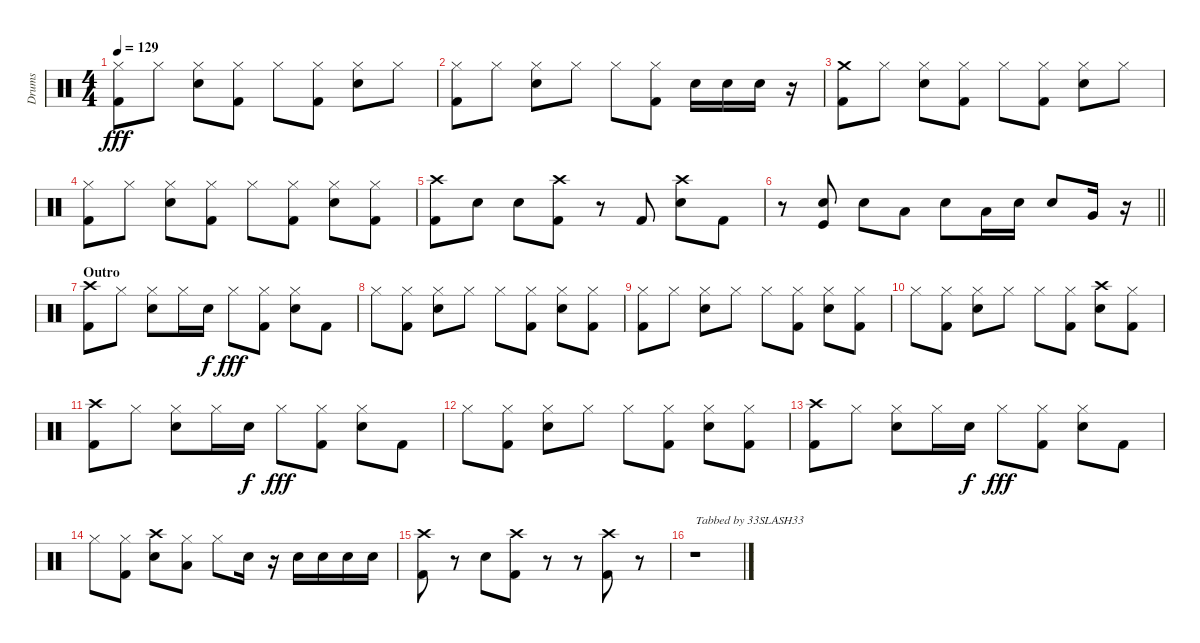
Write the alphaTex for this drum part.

\track ("Drums" "Drums") {instrument percussion}
\staff {score}
\articulation defaults
\ts (4 4)
\tempo 129
\clef neutral
\ks c
("Hi-Hat (closed)" "Kick (hit) 2").8{dy fff} "Hi-Hat (closed)".8 ("Hi-Hat (closed)" "Snare (hit) 2").8 ("Hi-Hat (closed)" "Kick (hit) 2").8 "Hi-Hat (closed)".8 ("Hi-Hat (closed)" "Kick (hit) 2").8 ("Hi-Hat (closed)" "Snare (hit) 2").8 "Hi-Hat (closed)".8 |
("Hi-Hat (closed)" "Kick (hit) 2").8 "Hi-Hat (closed)".8 ("Hi-Hat (closed)" "Snare (hit) 2").8 "Hi-Hat (closed)".8 "Hi-Hat (closed)".8 ("Hi-Hat (closed)" "Kick (hit) 2").8 "Snare (hit) 2".16 "Snare (hit) 2".16 "Snare (hit) 2".16 r.16 |
("Crash medium (hit)" "Kick (hit) 2").8 "Hi-Hat (closed)".8 ("Hi-Hat (closed)" "Snare (hit) 2").8 ("Hi-Hat (closed)" "Kick (hit) 2").8 "Hi-Hat (closed)".8 ("Hi-Hat (closed)" "Kick (hit) 2").8 ("Hi-Hat (closed)" "Snare (hit) 2").8 "Hi-Hat (closed)".8 |
("Hi-Hat (closed)" "Kick (hit) 2").8 "Hi-Hat (closed)".8 ("Hi-Hat (closed)" "Snare (hit) 2").8 ("Hi-Hat (closed)" "Kick (hit) 2").8 "Hi-Hat (closed)".8 ("Hi-Hat (closed)" "Kick (hit) 2").8 ("Hi-Hat (closed)" "Snare (hit) 2").8 ("Hi-Hat (closed)" "Kick (hit) 2").8 |
("Crash high (hit)" "Kick (hit) 2").8 "Snare (hit) 2".8 "Snare (hit) 2".8 ("Crash high (hit)" "Kick (hit) 2").8 r.8 "Kick (hit) 2".8 ("Crash high (hit)" "Snare (hit) 2").8 "Kick (hit) 2".8 |
\barLineRight lightlight
r.8 ("Snare (hit) 2" "Kick (hit)").8 "Snare (hit) 2".8 "Low Floor Tom (hit)".8 "Snare (hit) 2".8 "Low Tom (hit)".16 "Snare (hit) 2".16 "Snare (hit) 2".8 "Very Low Tom (hit)".16 r.16 |
\section ("" "Outro")
("Crash high (hit)" "Kick (hit) 2").8 "Hi-Hat (closed)".8 ("Hi-Hat (closed)" "Snare (hit) 2").8 "Hi-Hat (closed)".16 "Snare (hit) 2".16{dy f} "Hi-Hat (closed)".8{dy fff} ("Hi-Hat (closed)" "Kick (hit) 2").8 ("Hi-Hat (closed)" "Snare (hit) 2").8 "Kick (hit) 2".8 |
"Hi-Hat (closed)".8 ("Hi-Hat (closed)" "Kick (hit) 2").8 ("Hi-Hat (closed)" "Snare (hit) 2").8 "Hi-Hat (closed)".8 "Hi-Hat (closed)".8 ("Hi-Hat (closed)" "Kick (hit) 2").8 ("Hi-Hat (closed)" "Snare (hit) 2").8 ("Hi-Hat (closed)" "Kick (hit) 2").8 |
("Hi-Hat (closed)" "Kick (hit) 2").8 "Hi-Hat (closed)".8 ("Hi-Hat (closed)" "Snare (hit) 2").8 "Hi-Hat (closed)".8 "Hi-Hat (closed)".8 ("Hi-Hat (closed)" "Kick (hit) 2").8 ("Hi-Hat (closed)" "Snare (hit) 2").8 ("Hi-Hat (closed)" "Kick (hit) 2").8 |
"Hi-Hat (closed)".8 ("Hi-Hat (closed)" "Kick (hit) 2").8 ("Hi-Hat (closed)" "Snare (hit) 2").8 "Hi-Hat (closed)".8 "Hi-Hat (closed)".8 ("Hi-Hat (closed)" "Kick (hit) 2").8 ("Crash high (hit)" "Snare (hit) 2").8 ("Hi-Hat (closed)" "Kick (hit) 2").8 |
("Crash high (hit)" "Kick (hit) 2").8 "Hi-Hat (closed)".8 ("Hi-Hat (closed)" "Snare (hit) 2").8 "Hi-Hat (closed)".16 "Snare (hit) 2".16{dy f} "Hi-Hat (closed)".8{dy fff} ("Hi-Hat (closed)" "Kick (hit) 2").8 ("Hi-Hat (closed)" "Snare (hit) 2").8 "Kick (hit) 2".8 |
"Hi-Hat (closed)".8 ("Hi-Hat (closed)" "Kick (hit) 2").8 ("Hi-Hat (closed)" "Snare (hit) 2").8 "Hi-Hat (closed)".8 "Hi-Hat (closed)".8 ("Hi-Hat (closed)" "Kick (hit) 2").8 ("Hi-Hat (closed)" "Snare (hit) 2").8 ("Hi-Hat (closed)" "Kick (hit) 2").8 |
("Crash high (hit)" "Kick (hit) 2").8 "Hi-Hat (closed)".8 ("Hi-Hat (closed)" "Snare (hit) 2").8 "Hi-Hat (closed)".16 "Snare (hit) 2".16{dy f} "Hi-Hat (closed)".8{dy fff} ("Hi-Hat (closed)" "Kick (hit) 2").8 ("Hi-Hat (closed)" "Snare (hit) 2").8 "Kick (hit) 2".8 |
"Hi-Hat (closed)".8 ("Hi-Hat (closed)" "Kick (hit) 2").8 ("Crash high (hit)" "Snare (hit) 2").8 ("Hi-Hat (closed)" "Low Tom (hit)").8 "Hi-Hat (closed)".8 "Snare (hit) 2".16 r.16 "Snare (hit) 2".16 "Snare (hit) 2".16 "Snare (hit) 2".16 "Snare (hit) 2".16 |
("Crash high (hit)" "Kick (hit) 2").8 r.8 "Snare (hit) 2".8 ("Crash high (hit)" "Kick (hit) 2").8 r.8 r.8 ("Crash high (hit)" "Kick (hit) 2").8 r.8 |
r.1{txt "Tabbed by 33SLASH33"}
